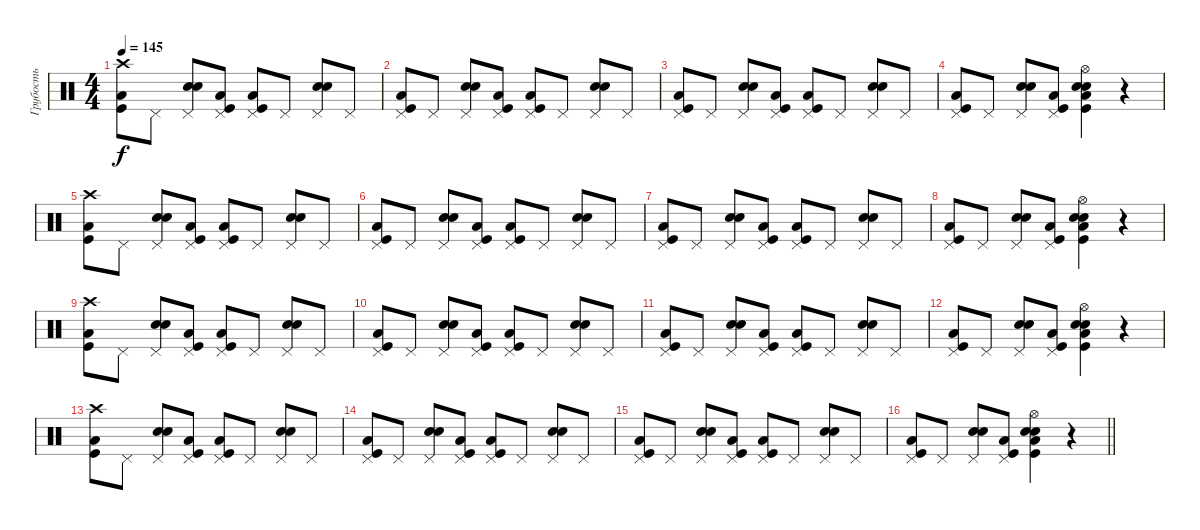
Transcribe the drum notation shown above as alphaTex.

\track ("Грубость" "Грубость") {instrument percussion}
\staff {score}
\articulation defaults
\ts (4 4)
\tempo 145
\clef neutral
\ks c
("Crash high (hit)" "Low Tom (hit)" "Kick (hit)").8{dy f} "Pedal Hi-Hat (hit)".8 ("Pedal Hi-Hat (hit)" "Electric Snare (hit)" "Snare (hit) 2").8 ("Pedal Hi-Hat (hit)" "Low Tom (hit)" "Kick (hit)").8 ("Pedal Hi-Hat (hit)" "Low Tom (hit)" "Kick (hit)").8 "Pedal Hi-Hat (hit)".8 ("Pedal Hi-Hat (hit)" "Electric Snare (hit)" "Snare (hit) 2").8 "Pedal Hi-Hat (hit)".8 |
("Pedal Hi-Hat (hit)" "Low Tom (hit)" "Kick (hit)").8 "Pedal Hi-Hat (hit)".8 ("Pedal Hi-Hat (hit)" "Electric Snare (hit)" "Snare (hit) 2").8 ("Pedal Hi-Hat (hit)" "Low Tom (hit)" "Kick (hit)").8 ("Pedal Hi-Hat (hit)" "Low Tom (hit)" "Kick (hit)").8 "Pedal Hi-Hat (hit)".8 ("Pedal Hi-Hat (hit)" "Electric Snare (hit)" "Snare (hit) 2").8 "Pedal Hi-Hat (hit)".8 |
("Pedal Hi-Hat (hit)" "Low Tom (hit)" "Kick (hit)").8 "Pedal Hi-Hat (hit)".8 ("Pedal Hi-Hat (hit)" "Electric Snare (hit)" "Snare (hit) 2").8 ("Pedal Hi-Hat (hit)" "Low Tom (hit)" "Kick (hit)").8 ("Pedal Hi-Hat (hit)" "Low Tom (hit)" "Kick (hit)").8 "Pedal Hi-Hat (hit)".8 ("Pedal Hi-Hat (hit)" "Electric Snare (hit)" "Snare (hit) 2").8 "Pedal Hi-Hat (hit)".8 |
("Pedal Hi-Hat (hit)" "Low Tom (hit)" "Kick (hit)").8 "Pedal Hi-Hat (hit)".8 ("Pedal Hi-Hat (hit)" "Electric Snare (hit)" "Snare (hit) 2").8 ("Pedal Hi-Hat (hit)" "Low Tom (hit)" "Kick (hit)").8 ("Hi-Hat (open)" "Electric Snare (hit)" "Snare (hit) 2" "Low Tom (hit)" "Kick (hit)").4 r.4 |
("Crash high (hit)" "Low Tom (hit)" "Kick (hit)").8 "Pedal Hi-Hat (hit)".8 ("Pedal Hi-Hat (hit)" "Electric Snare (hit)" "Snare (hit) 2").8 ("Pedal Hi-Hat (hit)" "Low Tom (hit)" "Kick (hit)").8 ("Pedal Hi-Hat (hit)" "Low Tom (hit)" "Kick (hit)").8 "Pedal Hi-Hat (hit)".8 ("Pedal Hi-Hat (hit)" "Electric Snare (hit)" "Snare (hit) 2").8 "Pedal Hi-Hat (hit)".8 |
("Pedal Hi-Hat (hit)" "Low Tom (hit)" "Kick (hit)").8 "Pedal Hi-Hat (hit)".8 ("Pedal Hi-Hat (hit)" "Electric Snare (hit)" "Snare (hit) 2").8 ("Pedal Hi-Hat (hit)" "Low Tom (hit)" "Kick (hit)").8 ("Pedal Hi-Hat (hit)" "Low Tom (hit)" "Kick (hit)").8 "Pedal Hi-Hat (hit)".8 ("Pedal Hi-Hat (hit)" "Electric Snare (hit)" "Snare (hit) 2").8 "Pedal Hi-Hat (hit)".8 |
("Pedal Hi-Hat (hit)" "Low Tom (hit)" "Kick (hit)").8 "Pedal Hi-Hat (hit)".8 ("Pedal Hi-Hat (hit)" "Electric Snare (hit)" "Snare (hit) 2").8 ("Pedal Hi-Hat (hit)" "Low Tom (hit)" "Kick (hit)").8 ("Pedal Hi-Hat (hit)" "Low Tom (hit)" "Kick (hit)").8 "Pedal Hi-Hat (hit)".8 ("Pedal Hi-Hat (hit)" "Electric Snare (hit)" "Snare (hit) 2").8 "Pedal Hi-Hat (hit)".8 |
("Pedal Hi-Hat (hit)" "Low Tom (hit)" "Kick (hit)").8 "Pedal Hi-Hat (hit)".8 ("Pedal Hi-Hat (hit)" "Electric Snare (hit)" "Snare (hit) 2").8 ("Pedal Hi-Hat (hit)" "Low Tom (hit)" "Kick (hit)").8 ("Hi-Hat (open)" "Electric Snare (hit)" "Snare (hit) 2" "Low Tom (hit)" "Kick (hit)").4 r.4 |
("Crash high (hit)" "Low Tom (hit)" "Kick (hit)").8 "Pedal Hi-Hat (hit)".8 ("Pedal Hi-Hat (hit)" "Electric Snare (hit)" "Snare (hit) 2").8 ("Pedal Hi-Hat (hit)" "Low Tom (hit)" "Kick (hit)").8 ("Pedal Hi-Hat (hit)" "Low Tom (hit)" "Kick (hit)").8 "Pedal Hi-Hat (hit)".8 ("Pedal Hi-Hat (hit)" "Electric Snare (hit)" "Snare (hit) 2").8 "Pedal Hi-Hat (hit)".8 |
("Pedal Hi-Hat (hit)" "Low Tom (hit)" "Kick (hit)").8 "Pedal Hi-Hat (hit)".8 ("Pedal Hi-Hat (hit)" "Electric Snare (hit)" "Snare (hit) 2").8 ("Pedal Hi-Hat (hit)" "Low Tom (hit)" "Kick (hit)").8 ("Pedal Hi-Hat (hit)" "Low Tom (hit)" "Kick (hit)").8 "Pedal Hi-Hat (hit)".8 ("Pedal Hi-Hat (hit)" "Electric Snare (hit)" "Snare (hit) 2").8 "Pedal Hi-Hat (hit)".8 |
("Pedal Hi-Hat (hit)" "Low Tom (hit)" "Kick (hit)").8 "Pedal Hi-Hat (hit)".8 ("Pedal Hi-Hat (hit)" "Electric Snare (hit)" "Snare (hit) 2").8 ("Pedal Hi-Hat (hit)" "Low Tom (hit)" "Kick (hit)").8 ("Pedal Hi-Hat (hit)" "Low Tom (hit)" "Kick (hit)").8 "Pedal Hi-Hat (hit)".8 ("Pedal Hi-Hat (hit)" "Electric Snare (hit)" "Snare (hit) 2").8 "Pedal Hi-Hat (hit)".8 |
("Pedal Hi-Hat (hit)" "Low Tom (hit)" "Kick (hit)").8 "Pedal Hi-Hat (hit)".8 ("Pedal Hi-Hat (hit)" "Electric Snare (hit)" "Snare (hit) 2").8 ("Pedal Hi-Hat (hit)" "Low Tom (hit)" "Kick (hit)").8 ("Hi-Hat (open)" "Electric Snare (hit)" "Snare (hit) 2" "Low Tom (hit)" "Kick (hit)").4 r.4 |
("Crash high (hit)" "Low Tom (hit)" "Kick (hit)").8 "Pedal Hi-Hat (hit)".8 ("Pedal Hi-Hat (hit)" "Electric Snare (hit)" "Snare (hit) 2").8 ("Pedal Hi-Hat (hit)" "Low Tom (hit)" "Kick (hit)").8 ("Pedal Hi-Hat (hit)" "Low Tom (hit)" "Kick (hit)").8 "Pedal Hi-Hat (hit)".8 ("Pedal Hi-Hat (hit)" "Electric Snare (hit)" "Snare (hit) 2").8 "Pedal Hi-Hat (hit)".8 |
("Pedal Hi-Hat (hit)" "Low Tom (hit)" "Kick (hit)").8 "Pedal Hi-Hat (hit)".8 ("Pedal Hi-Hat (hit)" "Electric Snare (hit)" "Snare (hit) 2").8 ("Pedal Hi-Hat (hit)" "Low Tom (hit)" "Kick (hit)").8 ("Pedal Hi-Hat (hit)" "Low Tom (hit)" "Kick (hit)").8 "Pedal Hi-Hat (hit)".8 ("Pedal Hi-Hat (hit)" "Electric Snare (hit)" "Snare (hit) 2").8 "Pedal Hi-Hat (hit)".8 |
("Pedal Hi-Hat (hit)" "Low Tom (hit)" "Kick (hit)").8 "Pedal Hi-Hat (hit)".8 ("Pedal Hi-Hat (hit)" "Electric Snare (hit)" "Snare (hit) 2").8 ("Pedal Hi-Hat (hit)" "Low Tom (hit)" "Kick (hit)").8 ("Pedal Hi-Hat (hit)" "Low Tom (hit)" "Kick (hit)").8 "Pedal Hi-Hat (hit)".8 ("Pedal Hi-Hat (hit)" "Electric Snare (hit)" "Snare (hit) 2").8 "Pedal Hi-Hat (hit)".8 |
\barLineRight lightlight
("Pedal Hi-Hat (hit)" "Low Tom (hit)" "Kick (hit)").8 "Pedal Hi-Hat (hit)".8 ("Pedal Hi-Hat (hit)" "Electric Snare (hit)" "Snare (hit) 2").8 ("Pedal Hi-Hat (hit)" "Low Tom (hit)" "Kick (hit)").8 ("Hi-Hat (open)" "Electric Snare (hit)" "Snare (hit) 2" "Low Tom (hit)" "Kick (hit)").4 r.4
